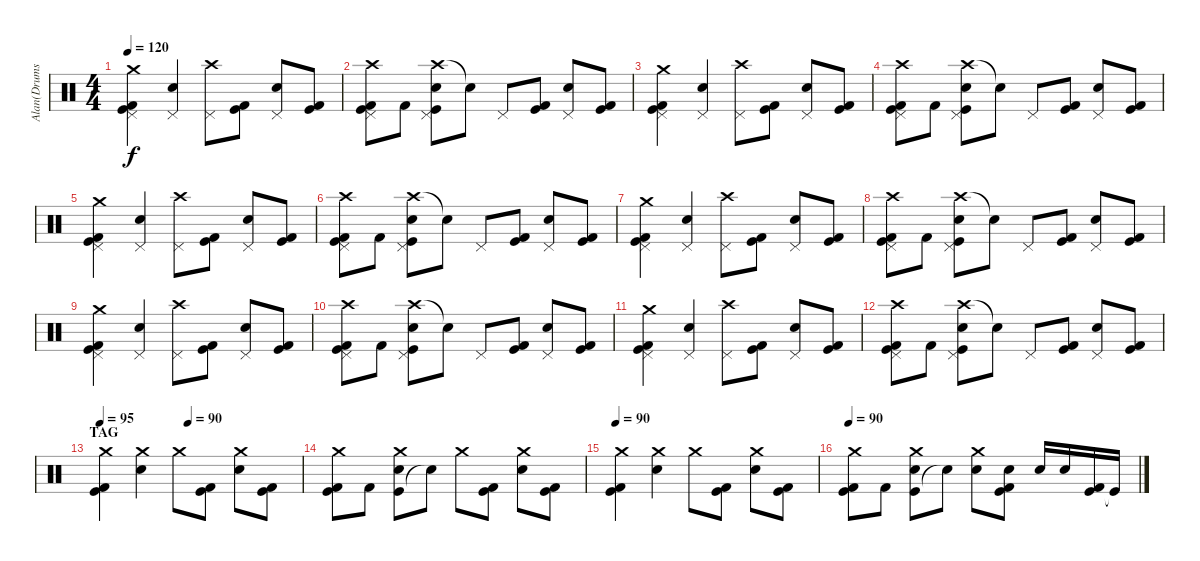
\track ("Alan(Drums)" "Alan(Drums") {instrument percussion}
\staff {score}
\articulation defaults
\ts (4 4)
\tempo 120
\clef neutral
\ks c
("Crash medium (hit)" "Kick (hit) 2" "Kick (hit)" "Pedal Hi-Hat (hit)").4{dy f} ("Electric Snare (hit)" "Pedal Hi-Hat (hit)").4 ("Crash high (hit)" "Pedal Hi-Hat (hit)").8 ("Kick (hit)" "Kick (hit) 2").8 ("Electric Snare (hit)" "Pedal Hi-Hat (hit)").8 ("Kick (hit)" "Kick (hit) 2").8 |
("Crash high (hit)" "Kick (hit)" "Kick (hit) 2" "Pedal Hi-Hat (hit)").8 "Kick (hit) 2".8 ("Crash high (hit)" "Kick (hit)" "Electric Snare (hit)" "Pedal Hi-Hat (hit)").8 "Snare (hit)"{t}.8 "Pedal Hi-Hat (hit)".8 ("Kick (hit)" "Kick (hit) 2").8 ("Electric Snare (hit)" "Pedal Hi-Hat (hit)").8 ("Kick (hit)" "Kick (hit) 2").8 |
("Crash medium (hit)" "Kick (hit) 2" "Kick (hit)" "Pedal Hi-Hat (hit)").4 ("Electric Snare (hit)" "Pedal Hi-Hat (hit)").4 ("Crash high (hit)" "Pedal Hi-Hat (hit)").8 ("Kick (hit)" "Kick (hit) 2").8 ("Electric Snare (hit)" "Pedal Hi-Hat (hit)").8 ("Kick (hit)" "Kick (hit) 2").8 |
("Crash high (hit)" "Kick (hit)" "Kick (hit) 2" "Pedal Hi-Hat (hit)").8 "Kick (hit) 2".8 ("Crash high (hit)" "Kick (hit)" "Electric Snare (hit)" "Pedal Hi-Hat (hit)").8 "Snare (hit)"{t}.8 "Pedal Hi-Hat (hit)".8 ("Kick (hit)" "Kick (hit) 2").8 ("Electric Snare (hit)" "Pedal Hi-Hat (hit)").8 ("Kick (hit)" "Kick (hit) 2").8 |
("Crash medium (hit)" "Kick (hit) 2" "Kick (hit)" "Pedal Hi-Hat (hit)").4 ("Electric Snare (hit)" "Pedal Hi-Hat (hit)").4 ("Crash high (hit)" "Pedal Hi-Hat (hit)").8 ("Kick (hit)" "Kick (hit) 2").8 ("Electric Snare (hit)" "Pedal Hi-Hat (hit)").8 ("Kick (hit)" "Kick (hit) 2").8 |
("Crash high (hit)" "Kick (hit)" "Kick (hit) 2" "Pedal Hi-Hat (hit)").8 "Kick (hit) 2".8 ("Crash high (hit)" "Kick (hit)" "Electric Snare (hit)" "Pedal Hi-Hat (hit)").8 "Snare (hit)"{t}.8 "Pedal Hi-Hat (hit)".8 ("Kick (hit)" "Kick (hit) 2").8 ("Electric Snare (hit)" "Pedal Hi-Hat (hit)").8 ("Kick (hit)" "Kick (hit) 2").8 |
("Crash medium (hit)" "Kick (hit) 2" "Kick (hit)" "Pedal Hi-Hat (hit)").4 ("Electric Snare (hit)" "Pedal Hi-Hat (hit)").4 ("Crash high (hit)" "Pedal Hi-Hat (hit)").8 ("Kick (hit)" "Kick (hit) 2").8 ("Electric Snare (hit)" "Pedal Hi-Hat (hit)").8 ("Kick (hit)" "Kick (hit) 2").8 |
("Crash high (hit)" "Kick (hit)" "Kick (hit) 2" "Pedal Hi-Hat (hit)").8 "Kick (hit) 2".8 ("Crash high (hit)" "Kick (hit)" "Electric Snare (hit)" "Pedal Hi-Hat (hit)").8 "Snare (hit)"{t}.8 "Pedal Hi-Hat (hit)".8 ("Kick (hit)" "Kick (hit) 2").8 ("Electric Snare (hit)" "Pedal Hi-Hat (hit)").8 ("Kick (hit)" "Kick (hit) 2").8 |
("Crash medium (hit)" "Kick (hit) 2" "Kick (hit)" "Pedal Hi-Hat (hit)").4 ("Electric Snare (hit)" "Pedal Hi-Hat (hit)").4 ("Crash high (hit)" "Pedal Hi-Hat (hit)").8 ("Kick (hit)" "Kick (hit) 2").8 ("Electric Snare (hit)" "Pedal Hi-Hat (hit)").8 ("Kick (hit)" "Kick (hit) 2").8 |
("Crash high (hit)" "Kick (hit)" "Kick (hit) 2" "Pedal Hi-Hat (hit)").8 "Kick (hit) 2".8 ("Crash high (hit)" "Kick (hit)" "Electric Snare (hit)" "Pedal Hi-Hat (hit)").8 "Snare (hit)"{t}.8 "Pedal Hi-Hat (hit)".8 ("Kick (hit)" "Kick (hit) 2").8 ("Electric Snare (hit)" "Pedal Hi-Hat (hit)").8 ("Kick (hit)" "Kick (hit) 2").8 |
("Crash medium (hit)" "Kick (hit) 2" "Kick (hit)" "Pedal Hi-Hat (hit)").4 ("Electric Snare (hit)" "Pedal Hi-Hat (hit)").4 ("Crash high (hit)" "Pedal Hi-Hat (hit)").8 ("Kick (hit)" "Kick (hit) 2").8 ("Electric Snare (hit)" "Pedal Hi-Hat (hit)").8 ("Kick (hit)" "Kick (hit) 2").8 |
("Crash high (hit)" "Kick (hit)" "Kick (hit) 2" "Pedal Hi-Hat (hit)").8 "Kick (hit) 2".8 ("Crash high (hit)" "Kick (hit)" "Electric Snare (hit)" "Pedal Hi-Hat (hit)").8 "Snare (hit)"{t}.8 "Pedal Hi-Hat (hit)".8 ("Kick (hit)" "Kick (hit) 2").8 ("Electric Snare (hit)" "Pedal Hi-Hat (hit)").8 ("Kick (hit)" "Kick (hit) 2").8 |
\section ("" "TAG")
\tempo 105
\tempo (90 0.4375)
\tempo 95
("Kick (hit) 2" "Kick (hit)" "Crash medium (hit)").4 ("Electric Snare (hit)" "Crash medium (hit)").4 "Crash medium (hit)".8 ("Kick (hit)" "Kick (hit) 2").8 ("Electric Snare (hit)" "Crash medium (hit)").8 ("Kick (hit)" "Kick (hit) 2").8 |
("Kick (hit)" "Kick (hit) 2" "Crash medium (hit)").8 "Kick (hit) 2".8 ("Kick (hit)" "Electric Snare (hit)" "Crash medium (hit)").8 "Snare (hit)"{t}.8 "Crash medium (hit)".8 ("Kick (hit)" "Kick (hit) 2").8 ("Electric Snare (hit)" "Crash medium (hit)").8 ("Kick (hit)" "Kick (hit) 2").8 |
\tempo 90
("Kick (hit) 2" "Kick (hit)" "Crash medium (hit)").4 ("Electric Snare (hit)" "Crash medium (hit)").4 "Crash medium (hit)".8 ("Kick (hit)" "Kick (hit) 2").8 ("Electric Snare (hit)" "Crash medium (hit)").8 ("Kick (hit)" "Kick (hit) 2").8 |
\tempo 90
("Kick (hit)" "Kick (hit) 2" "Crash medium (hit)").8 "Kick (hit) 2".8 ("Kick (hit)" "Electric Snare (hit)" "Crash medium (hit)").8 "Snare (hit)"{t}.8 ("Electric Snare (hit)" "Crash medium (hit)").8 ("Kick (hit)" "Kick (hit) 2" "Electric Snare (hit)").8 "Electric Snare (hit)".16 "Electric Snare (hit)".16 ("Kick (hit)" "Kick (hit) 2").16 "Kick (hit)"{t}.16
